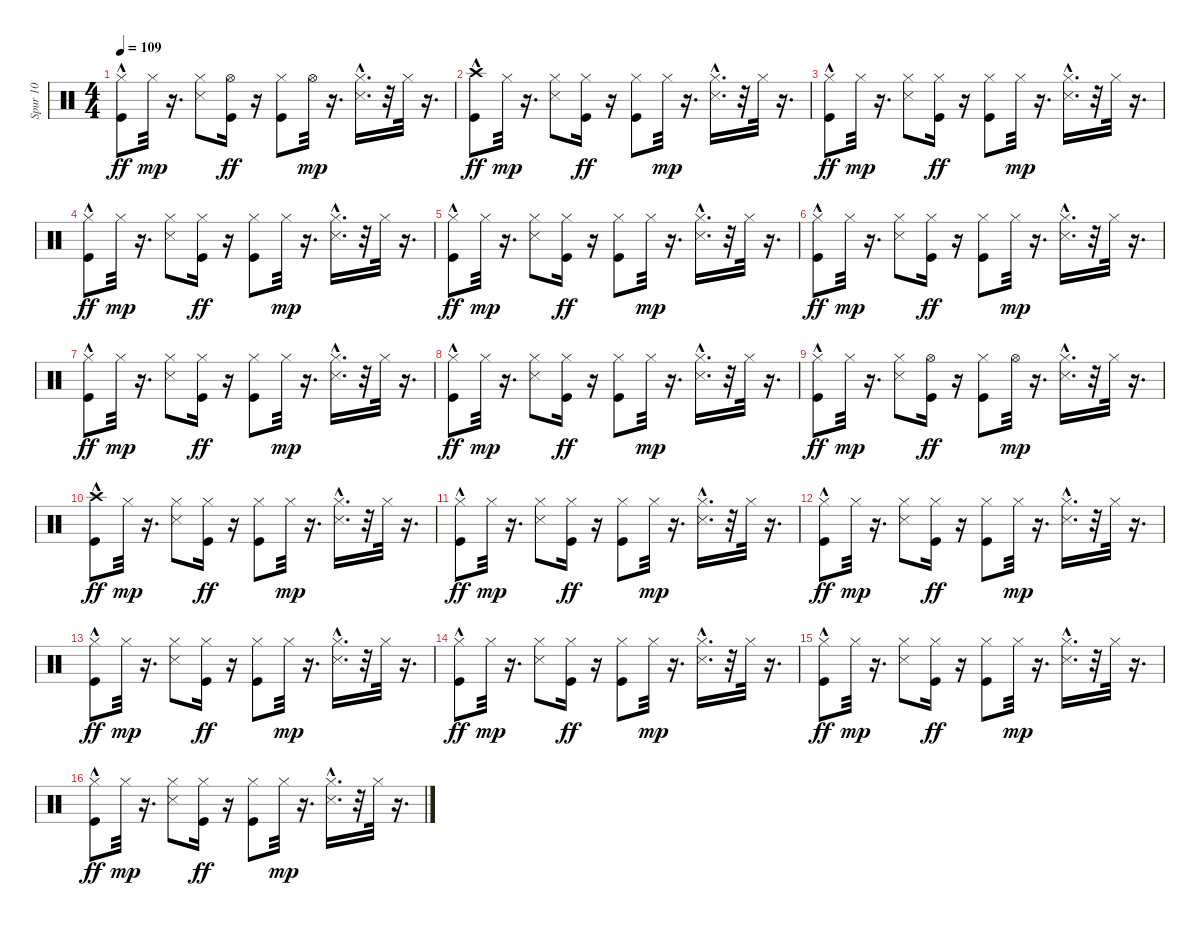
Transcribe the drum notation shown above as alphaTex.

\track ("Spur 10" "Spur 10") {instrument percussion}
\staff {score}
\articulation defaults
\ts (4 4)
\tempo 109
\clef neutral
\ks c
("Hi-Hat (closed)" "Kick (hit)"{hac}).8{dy ff} "Hi-Hat (closed)".32{dy mp} r.16{d} ("Hi-Hat (closed)" "Snare (side stick) 3").8 ("Hi-Hat (open)" "Kick (hit)").16{dy ff} r.16 ("Hi-Hat (closed)" "Kick (hit)").8 "Hi-Hat (open)".32{dy mp} r.16{d} ("Hi-Hat (closed)" "Snare (side stick) 3"{hac}).16{d} r.32 "Hi-Hat (closed)".32 r.16{d} |
("Crash high (hit)" "Kick (hit)"{hac}).8{dy ff} "Hi-Hat (closed)".32{dy mp} r.16{d} ("Hi-Hat (closed)" "Snare (side stick) 3").8 ("Hi-Hat (closed)" "Kick (hit)").16{dy ff} r.16 ("Hi-Hat (closed)" "Kick (hit)").8 "Hi-Hat (closed)".32{dy mp} r.16{d} ("Hi-Hat (closed)" "Snare (side stick) 3"{hac}).16{d} r.32 "Hi-Hat (closed)".32 r.16{d} |
("Hi-Hat (closed)" "Kick (hit)"{hac}).8{dy ff} "Hi-Hat (closed)".32{dy mp} r.16{d} ("Hi-Hat (closed)" "Snare (side stick) 3").8 ("Hi-Hat (closed)" "Kick (hit)").16{dy ff} r.16 ("Hi-Hat (closed)" "Kick (hit)").8 "Hi-Hat (closed)".32{dy mp} r.16{d} ("Hi-Hat (closed)" "Snare (side stick) 3"{hac}).16{d} r.32 "Hi-Hat (closed)".32 r.16{d} |
("Hi-Hat (closed)" "Kick (hit)"{hac}).8{dy ff} "Hi-Hat (closed)".32{dy mp} r.16{d} ("Hi-Hat (closed)" "Snare (side stick) 3").8 ("Hi-Hat (closed)" "Kick (hit)").16{dy ff} r.16 ("Hi-Hat (closed)" "Kick (hit)").8 "Hi-Hat (closed)".32{dy mp} r.16{d} ("Hi-Hat (closed)" "Snare (side stick) 3"{hac}).16{d} r.32 "Hi-Hat (closed)".32 r.16{d} |
("Hi-Hat (closed)" "Kick (hit)"{hac}).8{dy ff} "Hi-Hat (closed)".32{dy mp} r.16{d} ("Hi-Hat (closed)" "Snare (side stick) 3").8 ("Hi-Hat (closed)" "Kick (hit)").16{dy ff} r.16 ("Hi-Hat (closed)" "Kick (hit)").8 "Hi-Hat (closed)".32{dy mp} r.16{d} ("Hi-Hat (closed)" "Snare (side stick) 3"{hac}).16{d} r.32 "Hi-Hat (closed)".32 r.16{d} |
("Hi-Hat (closed)" "Kick (hit)"{hac}).8{dy ff} "Hi-Hat (closed)".32{dy mp} r.16{d} ("Hi-Hat (closed)" "Snare (side stick) 3").8 ("Hi-Hat (closed)" "Kick (hit)").16{dy ff} r.16 ("Hi-Hat (closed)" "Kick (hit)").8 "Hi-Hat (closed)".32{dy mp} r.16{d} ("Hi-Hat (closed)" "Snare (side stick) 3"{hac}).16{d} r.32 "Hi-Hat (closed)".32 r.16{d} |
("Hi-Hat (closed)" "Kick (hit)"{hac}).8{dy ff} "Hi-Hat (closed)".32{dy mp} r.16{d} ("Hi-Hat (closed)" "Snare (side stick) 3").8 ("Hi-Hat (closed)" "Kick (hit)").16{dy ff} r.16 ("Hi-Hat (closed)" "Kick (hit)").8 "Hi-Hat (closed)".32{dy mp} r.16{d} ("Hi-Hat (closed)" "Snare (side stick) 3"{hac}).16{d} r.32 "Hi-Hat (closed)".32 r.16{d} |
("Hi-Hat (closed)" "Kick (hit)"{hac}).8{dy ff} "Hi-Hat (closed)".32{dy mp} r.16{d} ("Hi-Hat (closed)" "Snare (side stick) 3").8 ("Hi-Hat (closed)" "Kick (hit)").16{dy ff} r.16 ("Hi-Hat (closed)" "Kick (hit)").8 "Hi-Hat (closed)".32{dy mp} r.16{d} ("Hi-Hat (closed)" "Snare (side stick) 3"{hac}).16{d} r.32 "Hi-Hat (closed)".32 r.16{d} |
("Hi-Hat (closed)" "Kick (hit)"{hac}).8{dy ff} "Hi-Hat (closed)".32{dy mp} r.16{d} ("Hi-Hat (closed)" "Snare (side stick) 3").8 ("Hi-Hat (open)" "Kick (hit)").16{dy ff} r.16 ("Hi-Hat (closed)" "Kick (hit)").8 "Hi-Hat (open)".32{dy mp} r.16{d} ("Hi-Hat (closed)" "Snare (side stick) 3"{hac}).16{d} r.32 "Hi-Hat (closed)".32 r.16{d} |
("Crash high (hit)" "Kick (hit)"{hac}).8{dy ff} "Hi-Hat (closed)".32{dy mp} r.16{d} ("Hi-Hat (closed)" "Snare (side stick) 3").8 ("Hi-Hat (closed)" "Kick (hit)").16{dy ff} r.16 ("Hi-Hat (closed)" "Kick (hit)").8 "Hi-Hat (closed)".32{dy mp} r.16{d} ("Hi-Hat (closed)" "Snare (side stick) 3"{hac}).16{d} r.32 "Hi-Hat (closed)".32 r.16{d} |
("Hi-Hat (closed)" "Kick (hit)"{hac}).8{dy ff} "Hi-Hat (closed)".32{dy mp} r.16{d} ("Hi-Hat (closed)" "Snare (side stick) 3").8 ("Hi-Hat (closed)" "Kick (hit)").16{dy ff} r.16 ("Hi-Hat (closed)" "Kick (hit)").8 "Hi-Hat (closed)".32{dy mp} r.16{d} ("Hi-Hat (closed)" "Snare (side stick) 3"{hac}).16{d} r.32 "Hi-Hat (closed)".32 r.16{d} |
("Hi-Hat (closed)" "Kick (hit)"{hac}).8{dy ff} "Hi-Hat (closed)".32{dy mp} r.16{d} ("Hi-Hat (closed)" "Snare (side stick) 3").8 ("Hi-Hat (closed)" "Kick (hit)").16{dy ff} r.16 ("Hi-Hat (closed)" "Kick (hit)").8 "Hi-Hat (closed)".32{dy mp} r.16{d} ("Hi-Hat (closed)" "Snare (side stick) 3"{hac}).16{d} r.32 "Hi-Hat (closed)".32 r.16{d} |
("Hi-Hat (closed)" "Kick (hit)"{hac}).8{dy ff} "Hi-Hat (closed)".32{dy mp} r.16{d} ("Hi-Hat (closed)" "Snare (side stick) 3").8 ("Hi-Hat (closed)" "Kick (hit)").16{dy ff} r.16 ("Hi-Hat (closed)" "Kick (hit)").8 "Hi-Hat (closed)".32{dy mp} r.16{d} ("Hi-Hat (closed)" "Snare (side stick) 3"{hac}).16{d} r.32 "Hi-Hat (closed)".32 r.16{d} |
("Hi-Hat (closed)" "Kick (hit)"{hac}).8{dy ff} "Hi-Hat (closed)".32{dy mp} r.16{d} ("Hi-Hat (closed)" "Snare (side stick) 3").8 ("Hi-Hat (closed)" "Kick (hit)").16{dy ff} r.16 ("Hi-Hat (closed)" "Kick (hit)").8 "Hi-Hat (closed)".32{dy mp} r.16{d} ("Hi-Hat (closed)" "Snare (side stick) 3"{hac}).16{d} r.32 "Hi-Hat (closed)".32 r.16{d} |
("Hi-Hat (closed)" "Kick (hit)"{hac}).8{dy ff} "Hi-Hat (closed)".32{dy mp} r.16{d} ("Hi-Hat (closed)" "Snare (side stick) 3").8 ("Hi-Hat (closed)" "Kick (hit)").16{dy ff} r.16 ("Hi-Hat (closed)" "Kick (hit)").8 "Hi-Hat (closed)".32{dy mp} r.16{d} ("Hi-Hat (closed)" "Snare (side stick) 3"{hac}).16{d} r.32 "Hi-Hat (closed)".32 r.16{d} |
("Hi-Hat (closed)" "Kick (hit)"{hac}).8{dy ff} "Hi-Hat (closed)".32{dy mp} r.16{d} ("Hi-Hat (closed)" "Snare (side stick) 3").8 ("Hi-Hat (closed)" "Kick (hit)").16{dy ff} r.16 ("Hi-Hat (closed)" "Kick (hit)").8 "Hi-Hat (closed)".32{dy mp} r.16{d} ("Hi-Hat (closed)" "Snare (side stick) 3"{hac}).16{d} r.32 "Hi-Hat (closed)".32 r.16{d}
